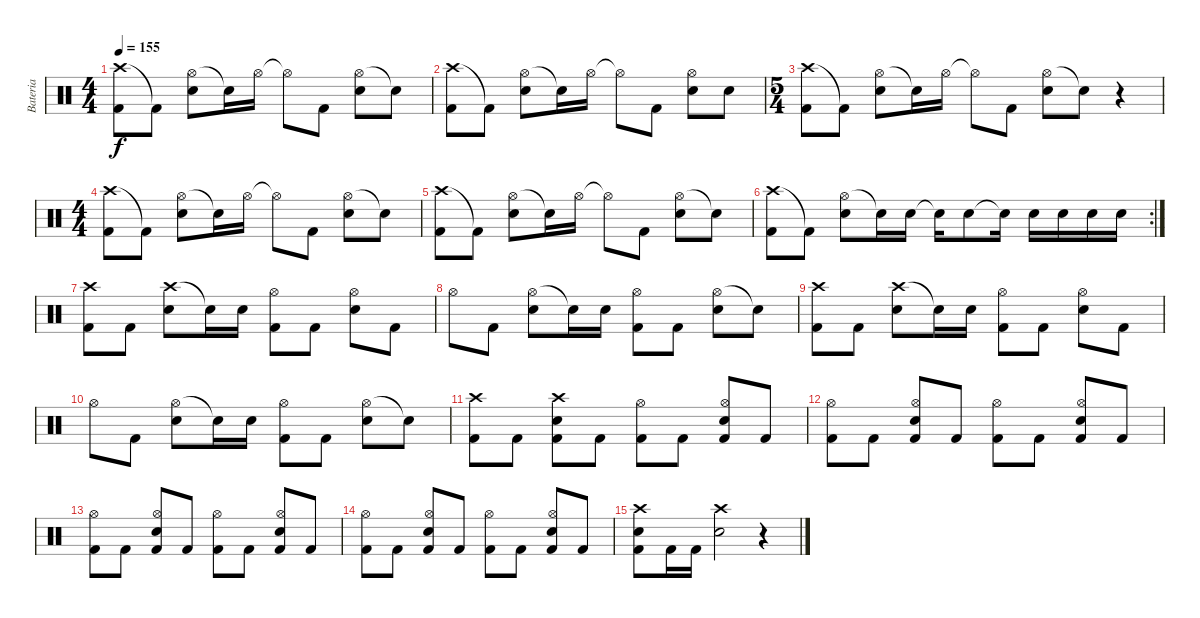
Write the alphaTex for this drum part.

\track ("Bateria" "Bateria") {instrument percussion}
\staff {score}
\articulation defaults
\ts (4 4)
\tempo 155
\clef neutral
\ks c
("Crash high (hit)" "Kick (hit) 2").8{dy f} "Kick (hit) 2"{t}.8 ("Hi-Hat (open)" "Snare (hit) 2").8 "Snare (hit) 2"{t}.16 "Hi-Hat (open)".16 "Hi-Hat (open)"{t}.8 "Kick (hit) 2".8 ("Hi-Hat (open)" "Snare (hit) 2").8 "Snare (hit) 2"{t}.8 |
("Crash high (hit)" "Kick (hit) 2").8 "Kick (hit) 2"{t}.8 ("Hi-Hat (open)" "Snare (hit) 2").8 "Snare (hit) 2"{t}.16 "Hi-Hat (open)".16 "Hi-Hat (open)"{t}.8 "Kick (hit) 2".8 ("Hi-Hat (open)" "Snare (hit) 2").8 "Snare (hit) 2".8 |
\ts (5 4)
("Crash high (hit)" "Kick (hit) 2").8 "Kick (hit) 2"{t}.8 ("Hi-Hat (open)" "Snare (hit) 2").8 "Snare (hit) 2"{t}.16 "Hi-Hat (open)".16 "Hi-Hat (open)"{t}.8 "Kick (hit) 2".8 ("Hi-Hat (open)" "Snare (hit) 2").8 "Snare (hit) 2"{t}.8 r.4 |
\ts (4 4)
("Crash high (hit)" "Kick (hit) 2").8 "Kick (hit) 2"{t}.8 ("Hi-Hat (open)" "Snare (hit) 2").8 "Snare (hit) 2"{t}.16 "Hi-Hat (open)".16 "Hi-Hat (open)"{t}.8 "Kick (hit) 2".8 ("Hi-Hat (open)" "Snare (hit) 2").8 "Snare (hit) 2"{t}.8 |
("Crash high (hit)" "Kick (hit) 2").8 "Kick (hit) 2"{t}.8 ("Hi-Hat (open)" "Snare (hit) 2").8 "Snare (hit) 2"{t}.16 "Hi-Hat (open)".16 "Hi-Hat (open)"{t}.8 "Kick (hit) 2".8 ("Hi-Hat (open)" "Snare (hit) 2").8 "Snare (hit)"{t}.8 |
\rc 2
("Crash high (hit)" "Kick (hit) 2").8 "Kick (hit) 2"{t}.8 ("Hi-Hat (open)" "Snare (hit) 2").8 "Snare (hit) 2"{t}.16 "Snare (hit) 2".16 "Snare (hit)"{t}.16 "Snare (hit) 2".8 "Snare (hit)"{t}.16 "Snare (hit) 2".16 "Snare (hit) 2".16 "Snare (hit) 2".16 "Snare (hit) 2".16 |
("Crash high (hit)" "Kick (hit) 2").8 "Kick (hit) 2".8 ("Crash high (hit)" "Snare (hit) 2").8 "Snare (hit) 2"{t}.16 "Snare (hit) 2".16 ("Hi-Hat (open)" "Kick (hit) 2").8 "Kick (hit) 2".8 ("Hi-Hat (open)" "Snare (hit) 2").8 "Kick (hit) 2".8 |
"Hi-Hat (open)".8 "Kick (hit) 2".8 ("Hi-Hat (open)" "Snare (hit) 2").8 "Snare (hit) 2"{t}.16 "Snare (hit) 2".16 ("Hi-Hat (open)" "Kick (hit) 2").8 "Kick (hit) 2".8 ("Hi-Hat (open)" "Snare (hit) 2").8 "Snare (hit)"{t}.8 |
("Crash high (hit)" "Kick (hit) 2").8 "Kick (hit) 2".8 ("Crash high (hit)" "Snare (hit) 2").8 "Snare (hit) 2"{t}.16 "Snare (hit) 2".16 ("Hi-Hat (open)" "Kick (hit) 2").8 "Kick (hit) 2".8 ("Hi-Hat (open)" "Snare (hit) 2").8 "Kick (hit) 2".8 |
"Hi-Hat (open)".8 "Kick (hit) 2".8 ("Hi-Hat (open)" "Snare (hit) 2").8 "Snare (hit) 2"{t}.16 "Snare (hit) 2".16 ("Hi-Hat (open)" "Kick (hit) 2").8 "Kick (hit) 2".8 ("Hi-Hat (open)" "Snare (hit) 2").8 "Snare (hit)"{t}.8 |
("Crash high (hit)" "Kick (hit) 2").8 "Kick (hit) 2".8 ("Crash high (hit)" "Snare (hit) 2" "Kick (hit) 2").8 "Kick (hit) 2".8 ("Hi-Hat (open)" "Kick (hit) 2").8 "Kick (hit) 2".8 ("Hi-Hat (open)" "Snare (hit) 2" "Kick (hit) 2").8 "Kick (hit) 2".8 |
("Hi-Hat (open)" "Kick (hit) 2").8 "Kick (hit) 2".8 ("Hi-Hat (open)" "Snare (hit) 2" "Kick (hit) 2").8 "Kick (hit) 2".8 ("Hi-Hat (open)" "Kick (hit) 2").8 "Kick (hit) 2".8 ("Hi-Hat (open)" "Snare (hit) 2" "Kick (hit) 2").8 "Kick (hit) 2".8 |
("Hi-Hat (open)" "Kick (hit) 2").8 "Kick (hit) 2".8 ("Hi-Hat (open)" "Snare (hit) 2" "Kick (hit) 2").8 "Kick (hit) 2".8 ("Hi-Hat (open)" "Kick (hit) 2").8 "Kick (hit) 2".8 ("Hi-Hat (open)" "Snare (hit) 2" "Kick (hit) 2").8 "Kick (hit) 2".8 |
("Hi-Hat (open)" "Kick (hit) 2").8 "Kick (hit) 2".8 ("Hi-Hat (open)" "Snare (hit) 2" "Kick (hit) 2").8 "Kick (hit) 2".8 ("Hi-Hat (open)" "Kick (hit) 2").8 "Kick (hit) 2".8 ("Hi-Hat (open)" "Snare (hit) 2" "Kick (hit) 2").8 "Kick (hit) 2".8 |
("Crash high (hit)" "Snare (hit) 2" "Kick (hit) 2").8 "Kick (hit) 2".16 "Kick (hit) 2".16 ("Crash high (hit)" "Snare (hit) 2").2 r.4
